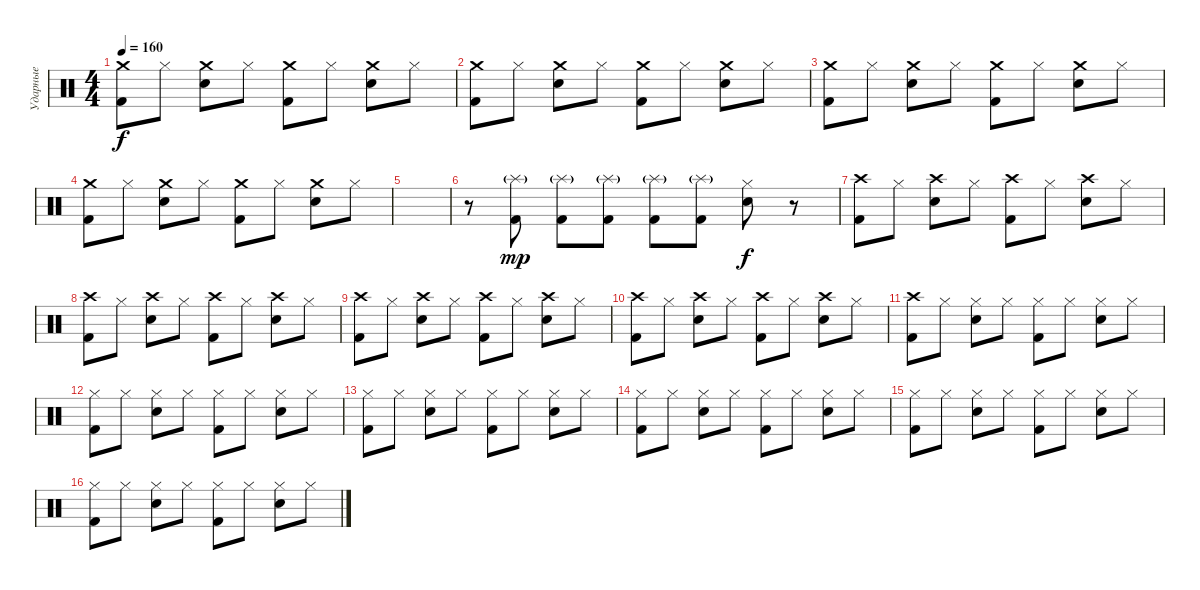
\track ("Ударные" "Ударные") {instrument percussion}
\staff {score}
\articulation defaults
\ts (4 4)
\tempo 160
\clef neutral
\ks c
("Crash medium (hit)" "Kick (hit) 2").8{dy f} "Hi-Hat (closed)".8 ("Crash medium (hit)" "Snare (hit) 2").8 "Hi-Hat (closed)".8 ("Crash medium (hit)" "Kick (hit) 2").8 "Hi-Hat (closed)".8 ("Crash medium (hit)" "Snare (hit) 2").8 "Hi-Hat (closed)".8 |
("Crash medium (hit)" "Kick (hit) 2").8 "Hi-Hat (closed)".8 ("Crash medium (hit)" "Snare (hit) 2").8 "Hi-Hat (closed)".8 ("Crash medium (hit)" "Kick (hit) 2").8 "Hi-Hat (closed)".8 ("Crash medium (hit)" "Snare (hit) 2").8 "Hi-Hat (closed)".8 |
("Crash medium (hit)" "Kick (hit) 2").8 "Hi-Hat (closed)".8 ("Crash medium (hit)" "Snare (hit) 2").8 "Hi-Hat (closed)".8 ("Crash medium (hit)" "Kick (hit) 2").8 "Hi-Hat (closed)".8 ("Crash medium (hit)" "Snare (hit) 2").8 "Hi-Hat (closed)".8 |
("Crash medium (hit)" "Kick (hit) 2").8 "Hi-Hat (closed)".8 ("Crash medium (hit)" "Snare (hit) 2").8 "Hi-Hat (closed)".8 ("Crash medium (hit)" "Kick (hit) 2").8 "Hi-Hat (closed)".8 ("Crash medium (hit)" "Snare (hit) 2").8 "Hi-Hat (closed)".8 |
|
r.8 ("Splash (hit)"{g} "Kick (hit) 2").8{dy mp} ("Splash (hit)"{g} "Kick (hit) 2").8 ("Splash (hit)"{g} "Kick (hit) 2").8 ("Splash (hit)"{g} "Kick (hit) 2").8 ("Splash (hit)"{g} "Kick (hit) 2").8 ("Hi-Hat (closed)" "Snare (hit) 2").8{dy f} r.8 |
("Crash high (hit)" "Kick (hit) 2").8 "Hi-Hat (closed)".8 ("Crash high (hit)" "Snare (hit) 2").8 "Hi-Hat (closed)".8 ("Crash high (hit)" "Kick (hit) 2").8 "Hi-Hat (closed)".8 ("Crash high (hit)" "Snare (hit) 2").8 "Hi-Hat (closed)".8 |
("Crash high (hit)" "Kick (hit) 2").8 "Hi-Hat (closed)".8 ("Crash high (hit)" "Snare (hit) 2").8 "Hi-Hat (closed)".8 ("Crash high (hit)" "Kick (hit) 2").8 "Hi-Hat (closed)".8 ("Crash high (hit)" "Snare (hit) 2").8 "Hi-Hat (closed)".8 |
("Crash high (hit)" "Kick (hit) 2").8 "Hi-Hat (closed)".8 ("Crash high (hit)" "Snare (hit) 2").8 "Hi-Hat (closed)".8 ("Crash high (hit)" "Kick (hit) 2").8 "Hi-Hat (closed)".8 ("Crash high (hit)" "Snare (hit) 2").8 "Hi-Hat (closed)".8 |
("Crash high (hit)" "Kick (hit) 2").8 "Hi-Hat (closed)".8 ("Crash high (hit)" "Snare (hit) 2").8 "Hi-Hat (closed)".8 ("Crash high (hit)" "Kick (hit) 2").8 "Hi-Hat (closed)".8 ("Crash high (hit)" "Snare (hit) 2").8 "Hi-Hat (closed)".8 |
("Crash high (hit)" "Kick (hit) 2").8 "Hi-Hat (closed)".8 ("Hi-Hat (closed)" "Snare (hit) 2").8 "Hi-Hat (closed)".8 ("Hi-Hat (closed)" "Kick (hit) 2").8 "Hi-Hat (closed)".8 ("Hi-Hat (closed)" "Snare (hit) 2").8 "Hi-Hat (closed)".8 |
("Hi-Hat (closed)" "Kick (hit) 2").8 "Hi-Hat (closed)".8 ("Hi-Hat (closed)" "Snare (hit) 2").8 "Hi-Hat (closed)".8 ("Hi-Hat (closed)" "Kick (hit) 2").8 "Hi-Hat (closed)".8 ("Hi-Hat (closed)" "Snare (hit) 2").8 "Hi-Hat (closed)".8 |
("Hi-Hat (closed)" "Kick (hit) 2").8 "Hi-Hat (closed)".8 ("Hi-Hat (closed)" "Snare (hit) 2").8 "Hi-Hat (closed)".8 ("Hi-Hat (closed)" "Kick (hit) 2").8 "Hi-Hat (closed)".8 ("Hi-Hat (closed)" "Snare (hit) 2").8 "Hi-Hat (closed)".8 |
("Hi-Hat (closed)" "Kick (hit) 2").8 "Hi-Hat (closed)".8 ("Hi-Hat (closed)" "Snare (hit) 2").8 "Hi-Hat (closed)".8 ("Hi-Hat (closed)" "Kick (hit) 2").8 "Hi-Hat (closed)".8 ("Hi-Hat (closed)" "Snare (hit) 2").8 "Hi-Hat (closed)".8 |
("Hi-Hat (closed)" "Kick (hit) 2").8 "Hi-Hat (closed)".8 ("Hi-Hat (closed)" "Snare (hit) 2").8 "Hi-Hat (closed)".8 ("Hi-Hat (closed)" "Kick (hit) 2").8 "Hi-Hat (closed)".8 ("Hi-Hat (closed)" "Snare (hit) 2").8 "Hi-Hat (closed)".8 |
("Hi-Hat (closed)" "Kick (hit) 2").8 "Hi-Hat (closed)".8 ("Hi-Hat (closed)" "Snare (hit) 2").8 "Hi-Hat (closed)".8 ("Hi-Hat (closed)" "Kick (hit) 2").8 "Hi-Hat (closed)".8 ("Hi-Hat (closed)" "Snare (hit) 2").8 "Hi-Hat (closed)".8
